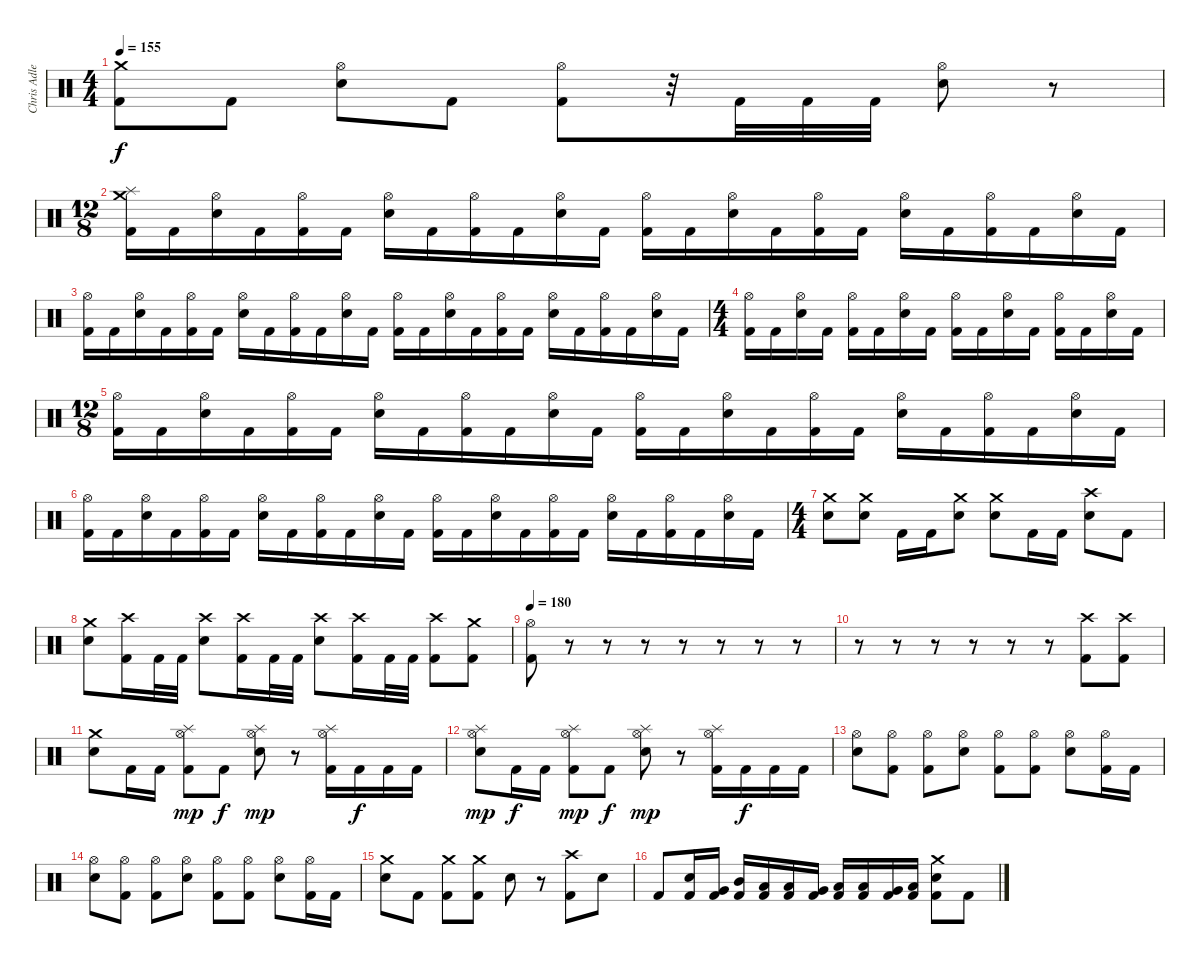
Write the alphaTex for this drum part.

\track ("Chris Adler" "Chris Adle") {instrument percussion}
\staff {score}
\articulation defaults
\ts (4 4)
\tempo 155
\clef neutral
\ks c
("Crash medium (hit)" "Kick (hit) 2").8{dy f} "Kick (hit) 2".8 ("Hi-Hat (open)" "Electric Snare (hit)").8 "Kick (hit) 2".8 ("Hi-Hat (open)" "Kick (hit) 2").8 r.32 "Kick (hit) 2".32 "Kick (hit) 2".32 "Kick (hit) 2".32 ("Hi-Hat (open)" "Electric Snare (hit)").8 r.8 |
\ts (12 8)
("Splash (hit)" "Crash medium (hit)" "Kick (hit) 2").16 "Kick (hit) 2".16 ("Hi-Hat (open)" "Electric Snare (hit)").16 "Kick (hit) 2".16 ("Hi-Hat (open)" "Kick (hit) 2").16 "Kick (hit) 2".16 ("Hi-Hat (open)" "Electric Snare (hit)").16 "Kick (hit) 2".16 ("Hi-Hat (open)" "Kick (hit) 2").16 "Kick (hit) 2".16 ("Hi-Hat (open)" "Electric Snare (hit)").16 "Kick (hit) 2".16 ("Hi-Hat (open)" "Kick (hit) 2").16 "Kick (hit) 2".16 ("Hi-Hat (open)" "Electric Snare (hit)").16 "Kick (hit) 2".16 ("Hi-Hat (open)" "Kick (hit) 2").16 "Kick (hit) 2".16 ("Hi-Hat (open)" "Electric Snare (hit)").16 "Kick (hit) 2".16 ("Hi-Hat (open)" "Kick (hit) 2").16 "Kick (hit) 2".16 ("Hi-Hat (open)" "Electric Snare (hit)").16 "Kick (hit) 2".16 |
("Hi-Hat (open)" "Kick (hit) 2").16 "Kick (hit) 2".16 ("Hi-Hat (open)" "Electric Snare (hit)").16 "Kick (hit) 2".16 ("Hi-Hat (open)" "Kick (hit) 2").16 "Kick (hit) 2".16 ("Hi-Hat (open)" "Electric Snare (hit)").16 "Kick (hit) 2".16 ("Hi-Hat (open)" "Kick (hit) 2").16 "Kick (hit) 2".16 ("Hi-Hat (open)" "Electric Snare (hit)").16 "Kick (hit) 2".16 ("Hi-Hat (open)" "Kick (hit) 2").16 "Kick (hit) 2".16 ("Hi-Hat (open)" "Electric Snare (hit)").16 "Kick (hit) 2".16 ("Hi-Hat (open)" "Kick (hit) 2").16 "Kick (hit) 2".16 ("Hi-Hat (open)" "Electric Snare (hit)").16 "Kick (hit) 2".16 ("Hi-Hat (open)" "Kick (hit) 2").16 "Kick (hit) 2".16 ("Hi-Hat (open)" "Electric Snare (hit)").16 "Kick (hit) 2".16 |
\ts (4 4)
("Hi-Hat (open)" "Kick (hit) 2").16 "Kick (hit) 2".16 ("Hi-Hat (open)" "Electric Snare (hit)").16 "Kick (hit) 2".16 ("Hi-Hat (open)" "Kick (hit) 2").16 "Kick (hit) 2".16 ("Hi-Hat (open)" "Electric Snare (hit)").16 "Kick (hit) 2".16 ("Hi-Hat (open)" "Kick (hit) 2").16 "Kick (hit) 2".16 ("Hi-Hat (open)" "Electric Snare (hit)").16 "Kick (hit) 2".16 ("Hi-Hat (open)" "Kick (hit) 2").16 "Kick (hit) 2".16 ("Hi-Hat (open)" "Electric Snare (hit)").16 "Kick (hit) 2".16 |
\ts (12 8)
("Hi-Hat (open)" "Kick (hit) 2").16 "Kick (hit) 2".16 ("Hi-Hat (open)" "Electric Snare (hit)").16 "Kick (hit) 2".16 ("Hi-Hat (open)" "Kick (hit) 2").16 "Kick (hit) 2".16 ("Hi-Hat (open)" "Electric Snare (hit)").16 "Kick (hit) 2".16 ("Hi-Hat (open)" "Kick (hit) 2").16 "Kick (hit) 2".16 ("Hi-Hat (open)" "Electric Snare (hit)").16 "Kick (hit) 2".16 ("Hi-Hat (open)" "Kick (hit) 2").16 "Kick (hit) 2".16 ("Hi-Hat (open)" "Electric Snare (hit)").16 "Kick (hit) 2".16 ("Hi-Hat (open)" "Kick (hit) 2").16 "Kick (hit) 2".16 ("Hi-Hat (open)" "Electric Snare (hit)").16 "Kick (hit) 2".16 ("Hi-Hat (open)" "Kick (hit) 2").16 "Kick (hit) 2".16 ("Hi-Hat (open)" "Electric Snare (hit)").16 "Kick (hit) 2".16 |
("Hi-Hat (open)" "Kick (hit) 2").16 "Kick (hit) 2".16 ("Hi-Hat (open)" "Electric Snare (hit)").16 "Kick (hit) 2".16 ("Hi-Hat (open)" "Kick (hit) 2").16 "Kick (hit) 2".16 ("Hi-Hat (open)" "Electric Snare (hit)").16 "Kick (hit) 2".16 ("Hi-Hat (open)" "Kick (hit) 2").16 "Kick (hit) 2".16 ("Hi-Hat (open)" "Electric Snare (hit)").16 "Kick (hit) 2".16 ("Hi-Hat (open)" "Kick (hit) 2").16 "Kick (hit) 2".16 ("Hi-Hat (open)" "Electric Snare (hit)").16 "Kick (hit) 2".16 ("Hi-Hat (open)" "Kick (hit) 2").16 "Kick (hit) 2".16 ("Hi-Hat (open)" "Electric Snare (hit)").16 "Kick (hit) 2".16 ("Hi-Hat (open)" "Kick (hit) 2").16 "Kick (hit) 2".16 ("Hi-Hat (open)" "Electric Snare (hit)").16 "Kick (hit) 2".16 |
\ts (4 4)
("Crash medium (hit)" "Electric Snare (hit)").8 ("Crash medium (hit)" "Electric Snare (hit)").8 "Kick (hit) 2".16 "Kick (hit) 2".16 ("Crash medium (hit)" "Electric Snare (hit)").8 ("Crash medium (hit)" "Electric Snare (hit)").8 "Kick (hit) 2".16 "Kick (hit) 2".16 ("Crash high (hit)" "Electric Snare (hit)").8 "Kick (hit) 2".8 |
("Crash medium (hit)" "Electric Snare (hit)").8 ("Crash high (hit)" "Kick (hit) 2").16 "Kick (hit) 2".32 "Kick (hit) 2".32 ("Crash high (hit)" "Electric Snare (hit)").8 ("Crash high (hit)" "Kick (hit) 2").16 "Kick (hit) 2".32 "Kick (hit) 2".32 ("Crash high (hit)" "Electric Snare (hit)").8 ("Crash high (hit)" "Kick (hit) 2").16 "Kick (hit) 2".32 "Kick (hit) 2".32 ("Crash high (hit)" "Kick (hit) 2").8 ("Crash medium (hit)" "Kick (hit) 2").8 |
\tempo 180
("Hi-Hat (open)" "Kick (hit) 2").8 r.8 r.8 r.8 r.8 r.8 r.8 r.8 |
r.8 r.8 r.8 r.8 r.8 r.8 ("Crash high (hit)" "Kick (hit) 2").8 ("Crash high (hit)" "Kick (hit) 2").8 |
("Crash medium (hit)" "Electric Snare (hit)").8 "Kick (hit) 2".16 "Kick (hit) 2".16 ("Splash (hit)" "Hi-Hat (open)" "Kick (hit) 2").8{dy mp} "Kick (hit) 2".8{dy f} ("Splash (hit)" "Hi-Hat (open)" "Electric Snare (hit)").8{dy mp} r.8 ("Splash (hit)" "Hi-Hat (open)" "Kick (hit) 2").16 "Kick (hit) 2".16{dy f} "Kick (hit) 2".16 "Kick (hit) 2".16 |
("Splash (hit)" "Hi-Hat (open)" "Electric Snare (hit)").8{dy mp} "Kick (hit) 2".16{dy f} "Kick (hit) 2".16 ("Splash (hit)" "Hi-Hat (open)" "Kick (hit) 2").8{dy mp} "Kick (hit) 2".8{dy f} ("Splash (hit)" "Hi-Hat (open)" "Electric Snare (hit)").8{dy mp} r.8 ("Splash (hit)" "Hi-Hat (open)" "Kick (hit) 2").16 "Kick (hit) 2".16{dy f} "Kick (hit) 2".16 "Kick (hit) 2".16 |
("Hi-Hat (open)" "Electric Snare (hit)").8 ("Hi-Hat (open)" "Kick (hit) 2").8 ("Hi-Hat (open)" "Kick (hit) 2").8 ("Hi-Hat (open)" "Electric Snare (hit)").8 ("Hi-Hat (open)" "Kick (hit) 2").8 ("Hi-Hat (open)" "Kick (hit) 2").8 ("Hi-Hat (open)" "Electric Snare (hit)").8 ("Hi-Hat (open)" "Kick (hit) 2").16 "Kick (hit) 2".16 |
("Hi-Hat (open)" "Electric Snare (hit)").8 ("Hi-Hat (open)" "Kick (hit) 2").8 ("Hi-Hat (open)" "Kick (hit) 2").8 ("Hi-Hat (open)" "Electric Snare (hit)").8 ("Hi-Hat (open)" "Kick (hit) 2").8 ("Hi-Hat (open)" "Kick (hit) 2").8 ("Hi-Hat (open)" "Electric Snare (hit)").8 ("Hi-Hat (open)" "Kick (hit) 2").16 "Kick (hit) 2".16 |
("Crash medium (hit)" "Electric Snare (hit)").8 "Kick (hit) 2".8 ("Crash medium (hit)" "Kick (hit) 2").8 ("Crash medium (hit)" "Kick (hit) 2").8 "Electric Snare (hit)".8 r.8 ("Crash high (hit)" "Kick (hit) 2").8 "Electric Snare (hit)".8 |
"Kick (hit) 2".8 ("Electric Snare (hit)" "Kick (hit) 2").16 ("Very Low Tom (hit)" "Kick (hit) 2").16 ("Mid Tom (hit)" "Kick (hit) 2").16 ("Low Tom (hit)" "Kick (hit) 2").16 ("Low Floor Tom (hit)" "Kick (hit) 2").16 ("Very Low Tom (hit)" "Kick (hit) 2").16 ("Low Tom (hit)" "Kick (hit) 2").16 ("Low Floor Tom (hit)" "Kick (hit) 2").16 ("Very Low Tom (hit)" "Kick (hit) 2").16 ("Low Tom (hit)" "Kick (hit) 2").16 ("Crash medium (hit)" "Electric Snare (hit)" "Kick (hit) 2").8 "Kick (hit) 2".8
